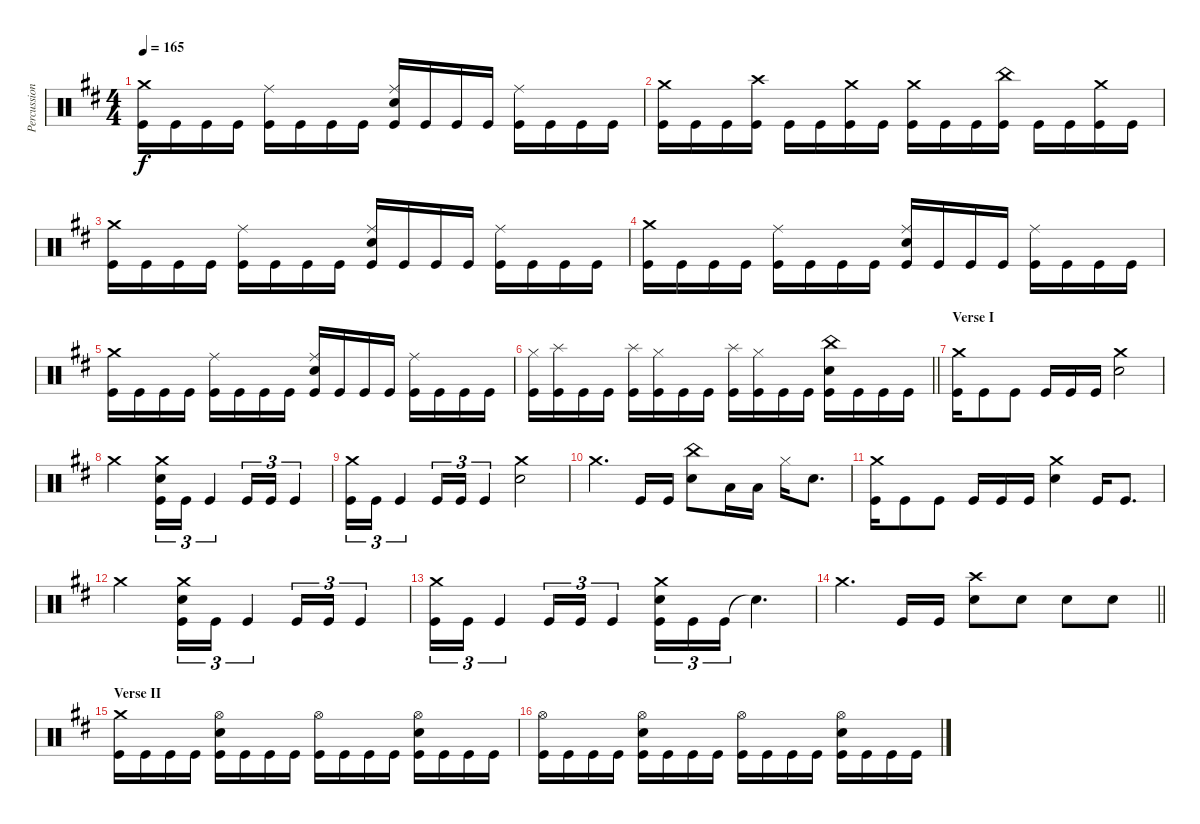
\track ("Percussion" "Percussion") {instrument percussion}
\staff {score}
\articulation defaults
\ts (4 4)
\tempo 165
\clef neutral
\ks d
("Crash medium (hit)" "Kick (hit)").16{dy f} "Kick (hit)".16 "Kick (hit)".16 "Kick (hit)".16 ("Ride (middle)" "Kick (hit)").16 "Kick (hit)".16 "Kick (hit)".16 "Kick (hit)".16 ("Ride (middle)" "Electric Snare (hit)" "Kick (hit)").16 "Kick (hit)".16 "Kick (hit)".16 "Kick (hit)".16 ("Ride (middle)" "Kick (hit)").16 "Kick (hit)".16 "Kick (hit)".16 "Kick (hit)".16 |
("Crash medium (hit)" "Kick (hit)").16 "Kick (hit)".16 "Kick (hit)".16 ("Crash high (hit)" "Kick (hit)").16 "Kick (hit)".16 "Kick (hit)".16 ("Crash medium (hit)" "Kick (hit)").16 "Kick (hit)".16 ("Crash medium (hit)" "Kick (hit)").16 "Kick (hit)".16 "Kick (hit)".16 ("China (hit)" "Kick (hit)").16 "Kick (hit)".16 "Kick (hit)".16 ("Crash medium (hit)" "Kick (hit)").16 "Kick (hit)".16 |
("Crash medium (hit)" "Kick (hit)").16 "Kick (hit)".16 "Kick (hit)".16 "Kick (hit)".16 ("Ride (middle)" "Kick (hit)").16 "Kick (hit)".16 "Kick (hit)".16 "Kick (hit)".16 ("Ride (middle)" "Electric Snare (hit)" "Kick (hit)").16 "Kick (hit)".16 "Kick (hit)".16 "Kick (hit)".16 ("Ride (middle)" "Kick (hit)").16 "Kick (hit)".16 "Kick (hit)".16 "Kick (hit)".16 |
("Crash medium (hit)" "Kick (hit)").16 "Kick (hit)".16 "Kick (hit)".16 "Kick (hit)".16 ("Ride (middle)" "Kick (hit)").16 "Kick (hit)".16 "Kick (hit)".16 "Kick (hit)".16 ("Ride (middle)" "Electric Snare (hit)" "Kick (hit)").16 "Kick (hit)".16 "Kick (hit)".16 "Kick (hit)".16 ("Ride (middle)" "Kick (hit)").16 "Kick (hit)".16 "Kick (hit)".16 "Kick (hit)".16 |
("Crash medium (hit)" "Kick (hit)").16 "Kick (hit)".16 "Kick (hit)".16 "Kick (hit)".16 ("Ride (middle)" "Kick (hit)").16 "Kick (hit)".16 "Kick (hit)".16 "Kick (hit)".16 ("Ride (middle)" "Electric Snare (hit)" "Kick (hit)").16 "Kick (hit)".16 "Kick (hit)".16 "Kick (hit)".16 ("Ride (middle)" "Kick (hit)").16 "Kick (hit)".16 "Kick (hit)".16 "Kick (hit)".16 |
\barLineRight lightlight
("Hi-Hat (closed)" "Kick (hit)").16 ("Splash (hit)" "Kick (hit)").16 "Kick (hit)".16 "Kick (hit)".16 ("Splash (hit)" "Kick (hit)").16 ("Hi-Hat (closed)" "Kick (hit)").16 "Kick (hit)".16 "Kick (hit)".16 ("Splash (hit)" "Kick (hit)").16 ("Hi-Hat (closed)" "Kick (hit)").16 "Kick (hit)".16 "Kick (hit)".16 ("China (hit)" "Electric Snare (hit)" "Kick (hit)").16 "Kick (hit)".16 "Kick (hit)".16 "Kick (hit)".16 |
\section ("" "Verse I")
("Crash medium (hit)" "Kick (hit)").16 "Kick (hit)".8 "Kick (hit)".8 "Kick (hit)".16 "Kick (hit)".16 "Kick (hit)".16 ("Crash medium (hit)" "Electric Snare (hit)").2 |
"Crash medium (hit)".2 ("Crash medium (hit)" "Electric Snare (hit)" "Kick (hit)").16{tu (3 2)} "Kick (hit)".16{tu (3 2)} "Kick (hit)".4{tu (3 2)} "Kick (hit)".16{tu (3 2)} "Kick (hit)".16{tu (3 2)} "Kick (hit)".4{tu (3 2)} |
("Crash medium (hit)" "Kick (hit)").16{tu (3 2)} "Kick (hit)".16{tu (3 2)} "Kick (hit)".4{tu (3 2)} "Kick (hit)".16{tu (3 2)} "Kick (hit)".16{tu (3 2)} "Kick (hit)".4{tu (3 2)} ("Crash medium (hit)" "Electric Snare (hit)").2 |
"Crash medium (hit)".4{d} "Kick (hit)".16 "Kick (hit)".16 ("China (hit)" "Electric Snare (hit)").8 "Low Tom (hit)".16 "Low Tom (hit)".16 "Hi-Hat (closed)".16 "Electric Snare (hit)".8{d} |
("Crash medium (hit)" "Kick (hit)").16 "Kick (hit)".8 "Kick (hit)".8 "Kick (hit)".16 "Kick (hit)".16 "Kick (hit)".16 ("Crash medium (hit)" "Electric Snare (hit)").4 "Kick (hit)".16 "Kick (hit)".8{d} |
"Crash medium (hit)".2 ("Crash medium (hit)" "Electric Snare (hit)" "Kick (hit)").16{tu (3 2)} "Kick (hit)".16{tu (3 2)} "Kick (hit)".4{tu (3 2)} "Kick (hit)".16{tu (3 2)} "Kick (hit)".16{tu (3 2)} "Kick (hit)".4{tu (3 2)} |
("Crash medium (hit)" "Kick (hit)").16{tu (3 2)} "Kick (hit)".16{tu (3 2)} "Kick (hit)".4{tu (3 2)} "Kick (hit)".16{tu (3 2)} "Kick (hit)".16{tu (3 2)} "Kick (hit)".4{tu (3 2)} ("Crash medium (hit)" "Electric Snare (hit)" "Kick (hit)").16{tu (3 2)} "Kick (hit)".16{tu (3 2)} "Kick (hit)".16{tu (3 2)} "Snare (hit)"{t}.4{d} |
\barLineRight lightlight "Crash medium (hit)".4{d} "Kick (hit)".16 "Kick (hit)".16
("Crash high (hit)" "Electric Snare (hit)").8 "Electric Snare (hit)".8 "Electric Snare (hit)".8 "Electric Snare (hit)".8 |
\section ("" "Verse II")
("Crash medium (hit)" "Kick (hit)").16 "Kick (hit)".16 "Kick (hit)".16 "Kick (hit)".16 ("Hi-Hat (open)" "Electric Snare (hit)" "Kick (hit)").16 "Kick (hit)".16 "Kick (hit)".16 "Kick (hit)".16 ("Hi-Hat (open)" "Kick (hit)").16 "Kick (hit)".16 "Kick (hit)".16 "Kick (hit)".16 ("Hi-Hat (open)" "Electric Snare (hit)" "Kick (hit)").16 "Kick (hit)".16 "Kick (hit)".16 "Kick (hit)".16 |
("Hi-Hat (open)" "Kick (hit)").16 "Kick (hit)".16 "Kick (hit)".16 "Kick (hit)".16 ("Hi-Hat (open)" "Electric Snare (hit)" "Kick (hit)").16 "Kick (hit)".16 "Kick (hit)".16 "Kick (hit)".16 ("Hi-Hat (open)" "Kick (hit)").16 "Kick (hit)".16 "Kick (hit)".16 "Kick (hit)".16 ("Hi-Hat (open)" "Electric Snare (hit)" "Kick (hit)").16 "Kick (hit)".16 "Kick (hit)".16 "Kick (hit)".16
